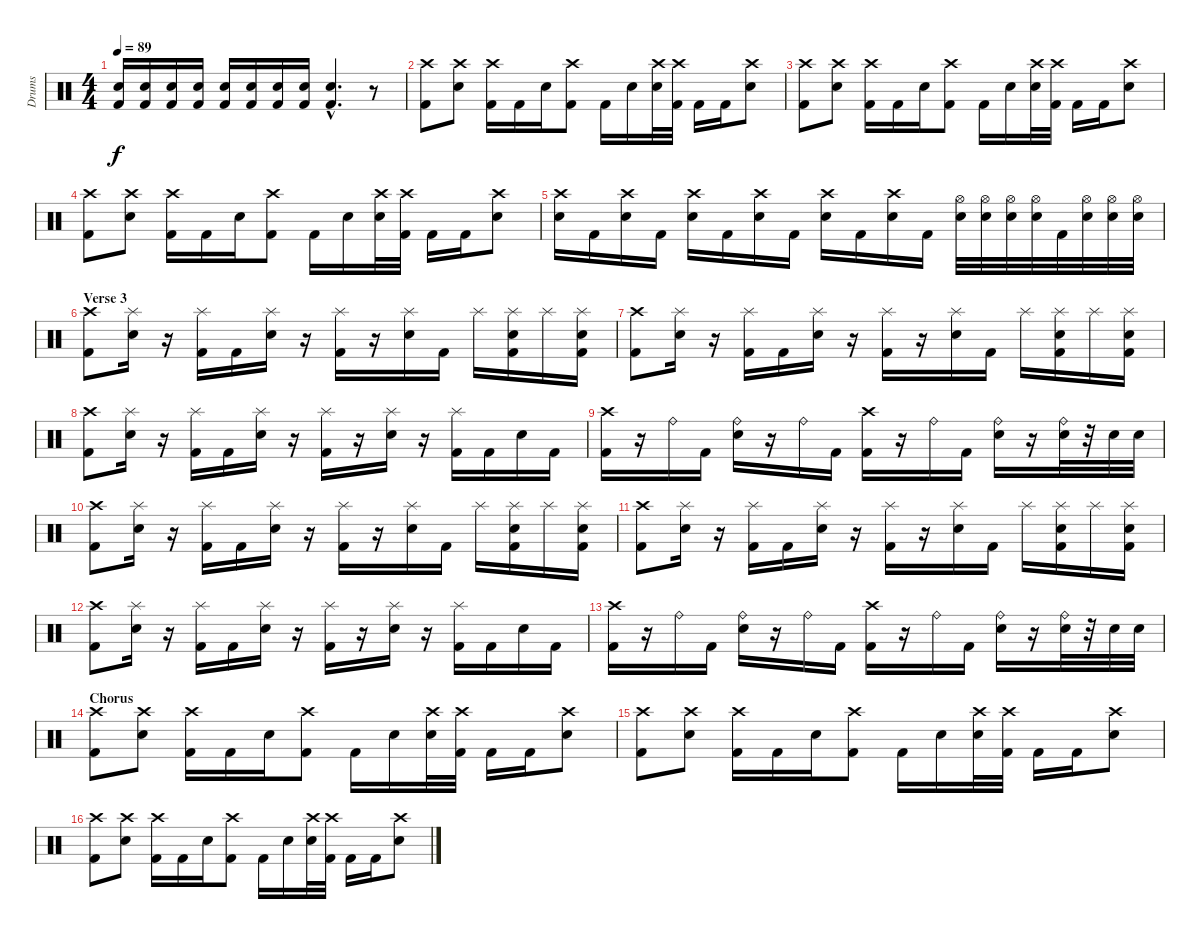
\track ("Drums" "Drums") {instrument percussion}
\staff {score}
\articulation defaults
\ts (4 4)
\tempo 89
\clef neutral
\ks c
("Electric Snare (hit)" "Kick (hit) 2").16{dy f} ("Electric Snare (hit)" "Kick (hit) 2").16 ("Electric Snare (hit)" "Kick (hit) 2").16 ("Electric Snare (hit)" "Kick (hit) 2").16 ("Electric Snare (hit)" "Kick (hit) 2").16 ("Electric Snare (hit)" "Kick (hit) 2").16 ("Electric Snare (hit)" "Kick (hit) 2").16 ("Electric Snare (hit)" "Kick (hit) 2").16 ("Electric Snare (hit)"{hac} "Kick (hit) 2"{hac}).4{d} r.8 |
("Crash high (hit)" "Kick (hit) 2").8 ("Crash high (hit)" "Electric Snare (hit)").8 ("Crash high (hit)" "Kick (hit) 2").16 "Kick (hit) 2".16 "Electric Snare (hit)".16 ("Crash high (hit)" "Kick (hit) 2").8 "Kick (hit) 2".16 "Electric Snare (hit)".16 ("Crash high (hit)" "Electric Snare (hit)").32 ("Crash high (hit)" "Kick (hit) 2").32 "Kick (hit) 2".16 "Kick (hit) 2".16 ("Crash high (hit)" "Electric Snare (hit)").8 |
("Crash high (hit)" "Kick (hit) 2").8 ("Crash high (hit)" "Electric Snare (hit)").8 ("Crash high (hit)" "Kick (hit) 2").16 "Kick (hit) 2".16 "Electric Snare (hit)".16 ("Crash high (hit)" "Kick (hit) 2").8 "Kick (hit) 2".16 "Electric Snare (hit)".16 ("Crash high (hit)" "Electric Snare (hit)").32 ("Crash high (hit)" "Kick (hit) 2").32 "Kick (hit) 2".16 "Kick (hit) 2".16 ("Crash high (hit)" "Electric Snare (hit)").8 |
("Crash high (hit)" "Kick (hit) 2").8 ("Crash high (hit)" "Electric Snare (hit)").8 ("Crash high (hit)" "Kick (hit) 2").16 "Kick (hit) 2".16 "Electric Snare (hit)".16 ("Crash high (hit)" "Kick (hit) 2").8 "Kick (hit) 2".16 "Electric Snare (hit)".16 ("Crash high (hit)" "Electric Snare (hit)").32 ("Crash high (hit)" "Kick (hit) 2").32 "Kick (hit) 2".16 "Kick (hit) 2".16 ("Crash high (hit)" "Electric Snare (hit)").8 |
("Crash high (hit)" "Electric Snare (hit)").16 "Kick (hit) 2".16 ("Crash high (hit)" "Electric Snare (hit)").16 "Kick (hit) 2".16 ("Crash high (hit)" "Electric Snare (hit)").16 "Kick (hit) 2".16 ("Crash high (hit)" "Electric Snare (hit)").16 "Kick (hit) 2".16 ("Crash high (hit)" "Electric Snare (hit)").16 "Kick (hit) 2".16 ("Crash high (hit)" "Electric Snare (hit)").16 "Kick (hit) 2".16 ("Hi-Hat (open)" "Electric Snare (hit)").32 ("Hi-Hat (open)" "Electric Snare (hit)").32 ("Hi-Hat (open)" "Electric Snare (hit)").32 ("Hi-Hat (open)" "Electric Snare (hit)").32 "Kick (hit) 2".32 ("Hi-Hat (open)" "Electric Snare (hit)").32 ("Hi-Hat (open)" "Electric Snare (hit)").32 ("Hi-Hat (open)" "Electric Snare (hit)").32 |
\section ("" "Verse 3")
("Crash high (hit)" "Kick (hit) 2").8 ("Splash (hit)" "Electric Snare (hit)").16 r.16 ("Splash (hit)" "Kick (hit) 2").16 "Kick (hit) 2".16 ("Splash (hit)" "Electric Snare (hit)").16 r.16 ("Splash (hit)" "Kick (hit) 2").16 r.16 ("Splash (hit)" "Electric Snare (hit)").16 "Kick (hit) 2".16 "Splash (hit)".16 ("Splash (hit)" "Electric Snare (hit)" "Kick (hit) 2").16 "Splash (hit)".16 ("Splash (hit)" "Electric Snare (hit)" "Kick (hit) 2").16 |
("Crash high (hit)" "Kick (hit) 2").8 ("Splash (hit)" "Electric Snare (hit)").16 r.16 ("Splash (hit)" "Kick (hit) 2").16 "Kick (hit) 2".16 ("Splash (hit)" "Electric Snare (hit)").16 r.16 ("Splash (hit)" "Kick (hit) 2").16 r.16 ("Splash (hit)" "Electric Snare (hit)").16 "Kick (hit) 2".16 "Splash (hit)".16 ("Splash (hit)" "Electric Snare (hit)" "Kick (hit) 2").16 "Splash (hit)".16 ("Splash (hit)" "Electric Snare (hit)" "Kick (hit) 2").16 |
("Crash high (hit)" "Kick (hit) 2").8 ("Splash (hit)" "Electric Snare (hit)").16 r.16 ("Splash (hit)" "Kick (hit) 2").16 "Kick (hit) 2".16 ("Splash (hit)" "Electric Snare (hit)").16 r.16 ("Splash (hit)" "Kick (hit) 2").16 r.16 ("Splash (hit)" "Electric Snare (hit)").16 r.16 ("Splash (hit)" "Kick (hit) 2").16 "Kick (hit) 2".16 "Electric Snare (hit)".16 "Kick (hit) 2".16 |
("Crash high (hit)" "Kick (hit) 2").16 r.16 "Ride (bell)".16 "Kick (hit) 2".16 ("Ride (bell)" "Electric Snare (hit)").16 r.16 "Ride (bell)".16 "Kick (hit) 2".16 ("Crash high (hit)" "Kick (hit) 2").16 r.16 "Ride (bell)".16 "Kick (hit) 2".16 ("Ride (bell)" "Electric Snare (hit)").16 r.16 ("Ride (bell)" "Electric Snare (hit)").32 r.32 "Electric Snare (hit)".32 "Electric Snare (hit)".32 |
("Crash high (hit)" "Kick (hit) 2").8 ("Splash (hit)" "Electric Snare (hit)").16 r.16 ("Splash (hit)" "Kick (hit) 2").16 "Kick (hit) 2".16 ("Splash (hit)" "Electric Snare (hit)").16 r.16 ("Splash (hit)" "Kick (hit) 2").16 r.16 ("Splash (hit)" "Electric Snare (hit)").16 "Kick (hit) 2".16 "Splash (hit)".16 ("Splash (hit)" "Electric Snare (hit)" "Kick (hit) 2").16 "Splash (hit)".16 ("Splash (hit)" "Electric Snare (hit)" "Kick (hit) 2").16 |
("Crash high (hit)" "Kick (hit) 2").8 ("Splash (hit)" "Electric Snare (hit)").16 r.16 ("Splash (hit)" "Kick (hit) 2").16 "Kick (hit) 2".16 ("Splash (hit)" "Electric Snare (hit)").16 r.16 ("Splash (hit)" "Kick (hit) 2").16 r.16 ("Splash (hit)" "Electric Snare (hit)").16 "Kick (hit) 2".16 "Splash (hit)".16 ("Splash (hit)" "Electric Snare (hit)" "Kick (hit) 2").16 "Splash (hit)".16 ("Splash (hit)" "Electric Snare (hit)" "Kick (hit) 2").16 |
("Crash high (hit)" "Kick (hit) 2").8 ("Splash (hit)" "Electric Snare (hit)").16 r.16 ("Splash (hit)" "Kick (hit) 2").16 "Kick (hit) 2".16 ("Splash (hit)" "Electric Snare (hit)").16 r.16 ("Splash (hit)" "Kick (hit) 2").16 r.16 ("Splash (hit)" "Electric Snare (hit)").16 r.16 ("Splash (hit)" "Kick (hit) 2").16 "Kick (hit) 2".16 "Electric Snare (hit)".16 "Kick (hit) 2".16 |
("Crash high (hit)" "Kick (hit) 2").16 r.16 "Ride (bell)".16 "Kick (hit) 2".16 ("Ride (bell)" "Electric Snare (hit)").16 r.16 "Ride (bell)".16 "Kick (hit) 2".16 ("Crash high (hit)" "Kick (hit) 2").16 r.16 "Ride (bell)".16 "Kick (hit) 2".16 ("Ride (bell)" "Electric Snare (hit)").16 r.16 ("Ride (bell)" "Electric Snare (hit)").32 r.32 "Electric Snare (hit)".32 "Electric Snare (hit)".32 |
\section ("" "Chorus")
("Crash high (hit)" "Kick (hit) 2").8 ("Crash high (hit)" "Electric Snare (hit)").8 ("Crash high (hit)" "Kick (hit) 2").16 "Kick (hit) 2".16 "Electric Snare (hit)".16 ("Crash high (hit)" "Kick (hit) 2").8 "Kick (hit) 2".16 "Electric Snare (hit)".16 ("Crash high (hit)" "Electric Snare (hit)").32 ("Crash high (hit)" "Kick (hit) 2").32 "Kick (hit) 2".16 "Kick (hit) 2".16 ("Crash high (hit)" "Electric Snare (hit)").8 |
("Crash high (hit)" "Kick (hit) 2").8 ("Crash high (hit)" "Electric Snare (hit)").8 ("Crash high (hit)" "Kick (hit) 2").16 "Kick (hit) 2".16 "Electric Snare (hit)".16 ("Crash high (hit)" "Kick (hit) 2").8 "Kick (hit) 2".16 "Electric Snare (hit)".16 ("Crash high (hit)" "Electric Snare (hit)").32 ("Crash high (hit)" "Kick (hit) 2").32 "Kick (hit) 2".16 "Kick (hit) 2".16 ("Crash high (hit)" "Electric Snare (hit)").8 |
("Crash high (hit)" "Kick (hit) 2").8 ("Crash high (hit)" "Electric Snare (hit)").8 ("Crash high (hit)" "Kick (hit) 2").16 "Kick (hit) 2".16 "Electric Snare (hit)".16 ("Crash high (hit)" "Kick (hit) 2").8 "Kick (hit) 2".16 "Electric Snare (hit)".16 ("Crash high (hit)" "Electric Snare (hit)").32 ("Crash high (hit)" "Kick (hit) 2").32 "Kick (hit) 2".16 "Kick (hit) 2".16 ("Crash high (hit)" "Electric Snare (hit)").8
